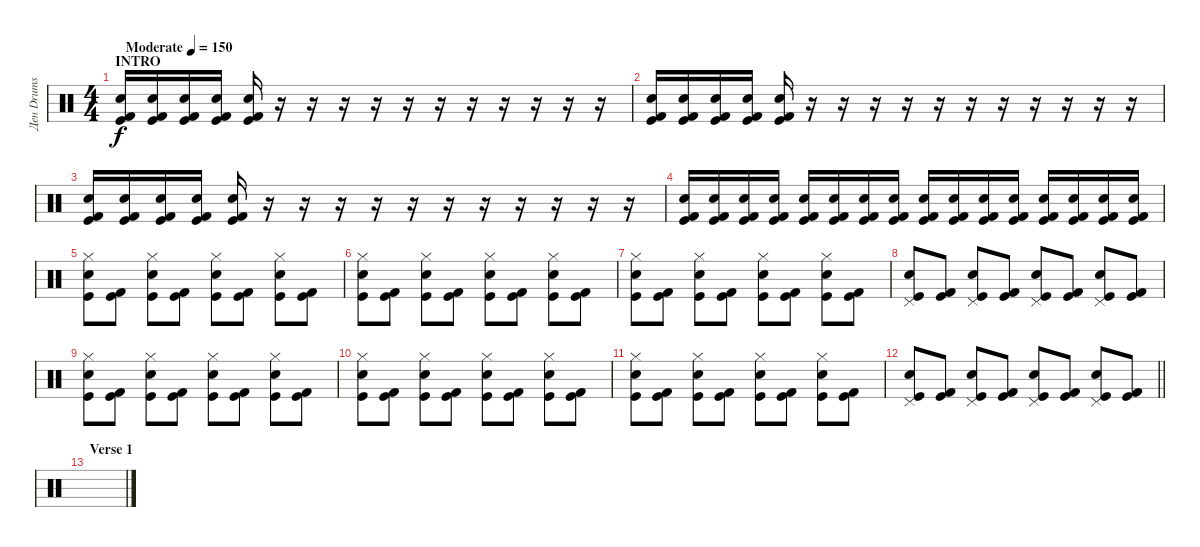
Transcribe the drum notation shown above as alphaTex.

\track ("Ден Drums" "Ден Drums") {instrument percussion}
\staff {score}
\articulation defaults
\ts (4 4)
\section ("" "INTRO")
\tempo (150 "Moderate")
\clef neutral
\ks c
("Electric Snare (hit)" "Kick (hit)" "Kick (hit) 2").16{dy f} ("Electric Snare (hit)" "Kick (hit)" "Kick (hit) 2").16 ("Electric Snare (hit)" "Kick (hit)" "Kick (hit) 2").16 ("Electric Snare (hit)" "Kick (hit)" "Kick (hit) 2").16 ("Electric Snare (hit)" "Kick (hit)" "Kick (hit) 2").16 r.16 r.16 r.16 r.16 r.16 r.16 r.16 r.16 r.16 r.16 r.16 |
("Electric Snare (hit)" "Kick (hit)" "Kick (hit) 2").16 ("Electric Snare (hit)" "Kick (hit)" "Kick (hit) 2").16 ("Electric Snare (hit)" "Kick (hit)" "Kick (hit) 2").16 ("Electric Snare (hit)" "Kick (hit)" "Kick (hit) 2").16 ("Electric Snare (hit)" "Kick (hit)" "Kick (hit) 2").16 r.16 r.16 r.16 r.16 r.16 r.16 r.16 r.16 r.16 r.16 r.16 |
("Electric Snare (hit)" "Kick (hit)" "Kick (hit) 2").16 ("Electric Snare (hit)" "Kick (hit)" "Kick (hit) 2").16 ("Electric Snare (hit)" "Kick (hit)" "Kick (hit) 2").16 ("Electric Snare (hit)" "Kick (hit)" "Kick (hit) 2").16 ("Electric Snare (hit)" "Kick (hit)" "Kick (hit) 2").16 r.16 r.16 r.16 r.16 r.16 r.16 r.16 r.16 r.16 r.16 r.16 |
("Electric Snare (hit)" "Kick (hit)" "Kick (hit) 2").16 ("Electric Snare (hit)" "Kick (hit)" "Kick (hit) 2").16 ("Electric Snare (hit)" "Kick (hit)" "Kick (hit) 2").16 ("Electric Snare (hit)" "Kick (hit)" "Kick (hit) 2").16 ("Electric Snare (hit)" "Kick (hit)" "Kick (hit) 2").16 ("Electric Snare (hit)" "Kick (hit)" "Kick (hit) 2").16 ("Electric Snare (hit)" "Kick (hit)" "Kick (hit) 2").16 ("Electric Snare (hit)" "Kick (hit)" "Kick (hit) 2").16 ("Electric Snare (hit)" "Kick (hit)" "Kick (hit) 2").16 ("Electric Snare (hit)" "Kick (hit)" "Kick (hit) 2").16 ("Electric Snare (hit)" "Kick (hit)" "Kick (hit) 2").16 ("Electric Snare (hit)" "Kick (hit)" "Kick (hit) 2").16 ("Electric Snare (hit)" "Kick (hit)" "Kick (hit) 2").16 ("Electric Snare (hit)" "Kick (hit)" "Kick (hit) 2").16 ("Electric Snare (hit)" "Kick (hit)" "Kick (hit) 2").16 ("Electric Snare (hit)" "Kick (hit)" "Kick (hit) 2").16 |
("Hi-Hat (closed)" "Electric Snare (hit)" "Kick (hit)").8 ("Kick (hit)" "Kick (hit) 2").8 ("Hi-Hat (closed)" "Electric Snare (hit)" "Kick (hit)").8 ("Kick (hit)" "Kick (hit) 2").8 ("Hi-Hat (closed)" "Electric Snare (hit)" "Kick (hit)").8 ("Kick (hit)" "Kick (hit) 2").8 ("Hi-Hat (closed)" "Electric Snare (hit)" "Kick (hit)").8 ("Kick (hit)" "Kick (hit) 2").8 |
("Hi-Hat (closed)" "Electric Snare (hit)" "Kick (hit)").8 ("Kick (hit)" "Kick (hit) 2").8 ("Hi-Hat (closed)" "Electric Snare (hit)" "Kick (hit)").8 ("Kick (hit)" "Kick (hit) 2").8 ("Hi-Hat (closed)" "Electric Snare (hit)" "Kick (hit)").8 ("Kick (hit)" "Kick (hit) 2").8 ("Hi-Hat (closed)" "Electric Snare (hit)" "Kick (hit)").8 ("Kick (hit)" "Kick (hit) 2").8 |
("Hi-Hat (closed)" "Electric Snare (hit)" "Kick (hit)").8 ("Kick (hit)" "Kick (hit) 2").8 ("Hi-Hat (closed)" "Electric Snare (hit)" "Kick (hit)").8 ("Kick (hit)" "Kick (hit) 2").8 ("Hi-Hat (closed)" "Electric Snare (hit)" "Kick (hit)").8 ("Kick (hit)" "Kick (hit) 2").8 ("Hi-Hat (closed)" "Electric Snare (hit)" "Kick (hit)").8 ("Kick (hit)" "Kick (hit) 2").8 |
("Pedal Hi-Hat (hit)" "Electric Snare (hit)" "Kick (hit)").8 ("Kick (hit)" "Kick (hit) 2").8 ("Pedal Hi-Hat (hit)" "Electric Snare (hit)" "Kick (hit)").8 ("Kick (hit)" "Kick (hit) 2").8 ("Pedal Hi-Hat (hit)" "Electric Snare (hit)" "Kick (hit)").8 ("Kick (hit)" "Kick (hit) 2").8 ("Pedal Hi-Hat (hit)" "Electric Snare (hit)" "Kick (hit)").8 ("Kick (hit)" "Kick (hit) 2").8 |
("Hi-Hat (closed)" "Electric Snare (hit)" "Kick (hit)").8 ("Kick (hit)" "Kick (hit) 2").8 ("Hi-Hat (closed)" "Electric Snare (hit)" "Kick (hit)").8 ("Kick (hit)" "Kick (hit) 2").8 ("Hi-Hat (closed)" "Electric Snare (hit)" "Kick (hit)").8 ("Kick (hit)" "Kick (hit) 2").8 ("Hi-Hat (closed)" "Electric Snare (hit)" "Kick (hit)").8 ("Kick (hit)" "Kick (hit) 2").8 |
("Hi-Hat (closed)" "Electric Snare (hit)" "Kick (hit)").8 ("Kick (hit)" "Kick (hit) 2").8 ("Hi-Hat (closed)" "Electric Snare (hit)" "Kick (hit)").8 ("Kick (hit)" "Kick (hit) 2").8 ("Hi-Hat (closed)" "Electric Snare (hit)" "Kick (hit)").8 ("Kick (hit)" "Kick (hit) 2").8 ("Hi-Hat (closed)" "Electric Snare (hit)" "Kick (hit)").8 ("Kick (hit)" "Kick (hit) 2").8 |
("Hi-Hat (closed)" "Electric Snare (hit)" "Kick (hit)").8 ("Kick (hit)" "Kick (hit) 2").8 ("Hi-Hat (closed)" "Electric Snare (hit)" "Kick (hit)").8 ("Kick (hit)" "Kick (hit) 2").8 ("Hi-Hat (closed)" "Electric Snare (hit)" "Kick (hit)").8 ("Kick (hit)" "Kick (hit) 2").8 ("Hi-Hat (closed)" "Electric Snare (hit)" "Kick (hit)").8 ("Kick (hit)" "Kick (hit) 2").8 |
\barLineRight lightlight
("Pedal Hi-Hat (hit)" "Electric Snare (hit)" "Kick (hit)").8 ("Kick (hit)" "Kick (hit) 2").8 ("Pedal Hi-Hat (hit)" "Electric Snare (hit)" "Kick (hit)").8 ("Kick (hit)" "Kick (hit) 2").8 ("Pedal Hi-Hat (hit)" "Electric Snare (hit)" "Kick (hit)").8 ("Kick (hit)" "Kick (hit) 2").8 ("Pedal Hi-Hat (hit)" "Electric Snare (hit)" "Kick (hit)").8 ("Kick (hit)" "Kick (hit) 2").8 |
\section ("" "Verse 1")
